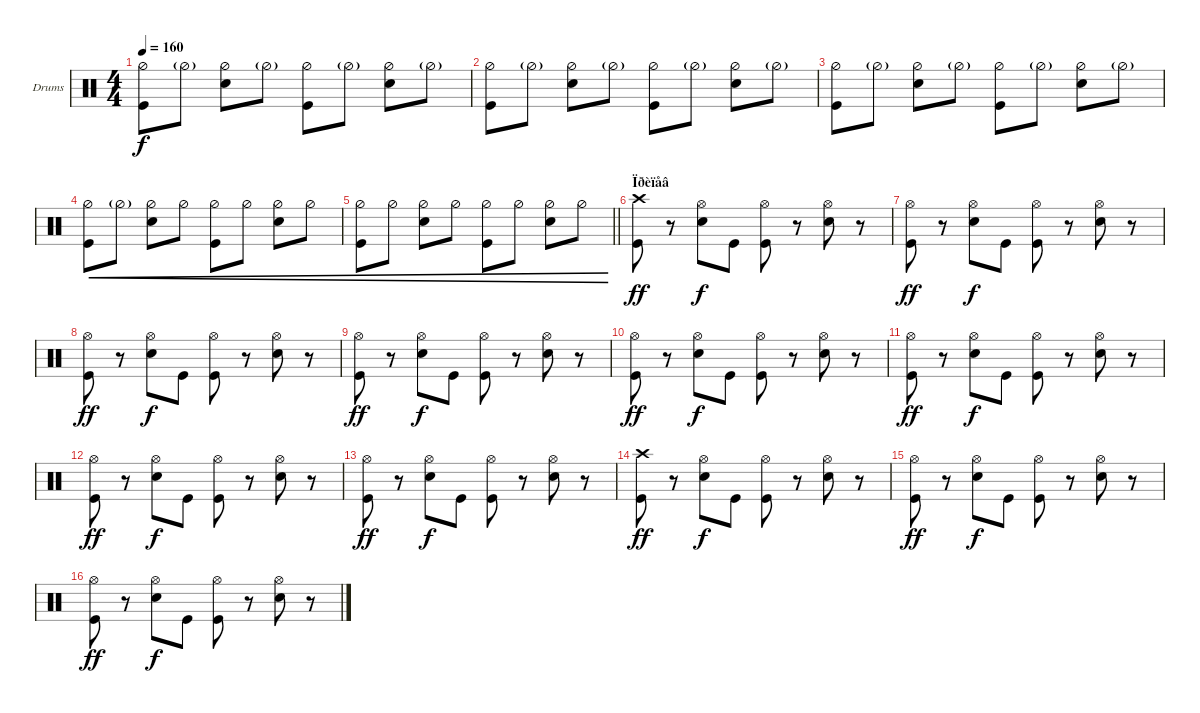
\bracketExtendMode groupsimilarinstruments
\firstSystemTrackNameOrientation horizontal
\otherSystemsTrackNameOrientation horizontal
\track ("Drumkit" "Drums") {instrument percussion}
\staff {score}
\articulation defaults
\ts (4 4)
\tempo 160
\clef neutral
\ks c
("Kick (hit)" "Hi-Hat (half)").8{dy f} "Hi-Hat (half)"{g}.8 ("Hi-Hat (half)" "Snare (hit) 2").8 "Hi-Hat (half)"{g}.8 ("Hi-Hat (half)" "Kick (hit)").8 "Hi-Hat (half)"{g}.8 ("Hi-Hat (half)" "Snare (hit) 2").8 "Hi-Hat (half)"{g}.8 |
("Kick (hit)" "Hi-Hat (half)").8 "Hi-Hat (half)"{g}.8 ("Hi-Hat (half)" "Snare (hit) 2").8 "Hi-Hat (half)"{g}.8 ("Hi-Hat (half)" "Kick (hit)").8 "Hi-Hat (half)"{g}.8 ("Hi-Hat (half)" "Snare (hit) 2").8 "Hi-Hat (half)"{g}.8 |
("Kick (hit)" "Hi-Hat (half)").8 "Hi-Hat (half)"{g}.8 ("Hi-Hat (half)" "Snare (hit) 2").8 "Hi-Hat (half)"{g}.8 ("Hi-Hat (half)" "Kick (hit)").8 "Hi-Hat (half)"{g}.8 ("Hi-Hat (half)" "Snare (hit) 2").8 "Hi-Hat (half)"{g}.8 |
("Kick (hit)" "Hi-Hat (half)").8{cre} "Hi-Hat (half)"{g}.8{cre} ("Hi-Hat (half)" "Snare (hit) 2").8{cre} "Hi-Hat (half)".8{cre} ("Hi-Hat (half)" "Kick (hit)").8{cre} "Hi-Hat (half)".8{cre} ("Hi-Hat (half)" "Snare (hit) 2").8{cre} "Hi-Hat (half)".8{cre} |
\barLineRight lightlight
("Kick (hit)" "Hi-Hat (half)").8{cre} "Hi-Hat (half)".8{cre} ("Hi-Hat (half)" "Snare (hit) 2").8{cre} "Hi-Hat (half)".8{cre} ("Hi-Hat (half)" "Kick (hit)").8{cre} "Hi-Hat (half)".8{cre} ("Hi-Hat (half)" "Snare (hit) 2").8{cre} "Hi-Hat (half)".8{cre} |
\section ("" "Ïðèïåâ")
("Crash high (hit)" "Kick (hit)").8{dy ff} r.8 ("Snare (hit) 2" "Hi-Hat (open)").8{dy f} "Kick (hit)".8 ("Kick (hit)" "Hi-Hat (open)").8 r.8 ("Snare (hit) 2" "Hi-Hat (open)").8 r.8 |
("Kick (hit)" "Hi-Hat (open)").8{dy ff} r.8 ("Snare (hit) 2" "Hi-Hat (open)").8{dy f} "Kick (hit)".8 ("Kick (hit)" "Hi-Hat (open)").8 r.8 ("Snare (hit) 2" "Hi-Hat (open)").8 r.8 |
("Kick (hit)" "Hi-Hat (open)").8{dy ff} r.8 ("Snare (hit) 2" "Hi-Hat (open)").8{dy f} "Kick (hit)".8 ("Kick (hit)" "Hi-Hat (open)").8 r.8 ("Snare (hit) 2" "Hi-Hat (open)").8 r.8 |
("Kick (hit)" "Hi-Hat (open)").8{dy ff} r.8 ("Snare (hit) 2" "Hi-Hat (open)").8{dy f} "Kick (hit)".8 ("Kick (hit)" "Hi-Hat (open)").8 r.8 ("Snare (hit) 2" "Hi-Hat (open)").8 r.8 |
("Kick (hit)" "Hi-Hat (open)").8{dy ff} r.8 ("Snare (hit) 2" "Hi-Hat (open)").8{dy f} "Kick (hit)".8 ("Kick (hit)" "Hi-Hat (open)").8 r.8 ("Snare (hit) 2" "Hi-Hat (open)").8 r.8 |
("Kick (hit)" "Hi-Hat (open)").8{dy ff} r.8 ("Snare (hit) 2" "Hi-Hat (open)").8{dy f} "Kick (hit)".8 ("Kick (hit)" "Hi-Hat (open)").8 r.8 ("Snare (hit) 2" "Hi-Hat (open)").8 r.8 |
("Kick (hit)" "Hi-Hat (open)").8{dy ff} r.8 ("Snare (hit) 2" "Hi-Hat (open)").8{dy f} "Kick (hit)".8 ("Kick (hit)" "Hi-Hat (open)").8 r.8 ("Snare (hit) 2" "Hi-Hat (open)").8 r.8 |
("Kick (hit)" "Hi-Hat (open)").8{dy ff} r.8 ("Snare (hit) 2" "Hi-Hat (open)").8{dy f} "Kick (hit)".8 ("Kick (hit)" "Hi-Hat (open)").8 r.8 ("Snare (hit) 2" "Hi-Hat (open)").8 r.8 |
("Crash high (hit)" "Kick (hit)").8{dy ff} r.8 ("Snare (hit) 2" "Hi-Hat (open)").8{dy f} "Kick (hit)".8 ("Kick (hit)" "Hi-Hat (open)").8 r.8 ("Snare (hit) 2" "Hi-Hat (open)").8 r.8 |
("Kick (hit)" "Hi-Hat (open)").8{dy ff} r.8 ("Snare (hit) 2" "Hi-Hat (open)").8{dy f} "Kick (hit)".8 ("Kick (hit)" "Hi-Hat (open)").8 r.8 ("Snare (hit) 2" "Hi-Hat (open)").8 r.8 |
("Kick (hit)" "Hi-Hat (open)").8{dy ff} r.8 ("Snare (hit) 2" "Hi-Hat (open)").8{dy f} "Kick (hit)".8 ("Kick (hit)" "Hi-Hat (open)").8 r.8 ("Snare (hit) 2" "Hi-Hat (open)").8 r.8
